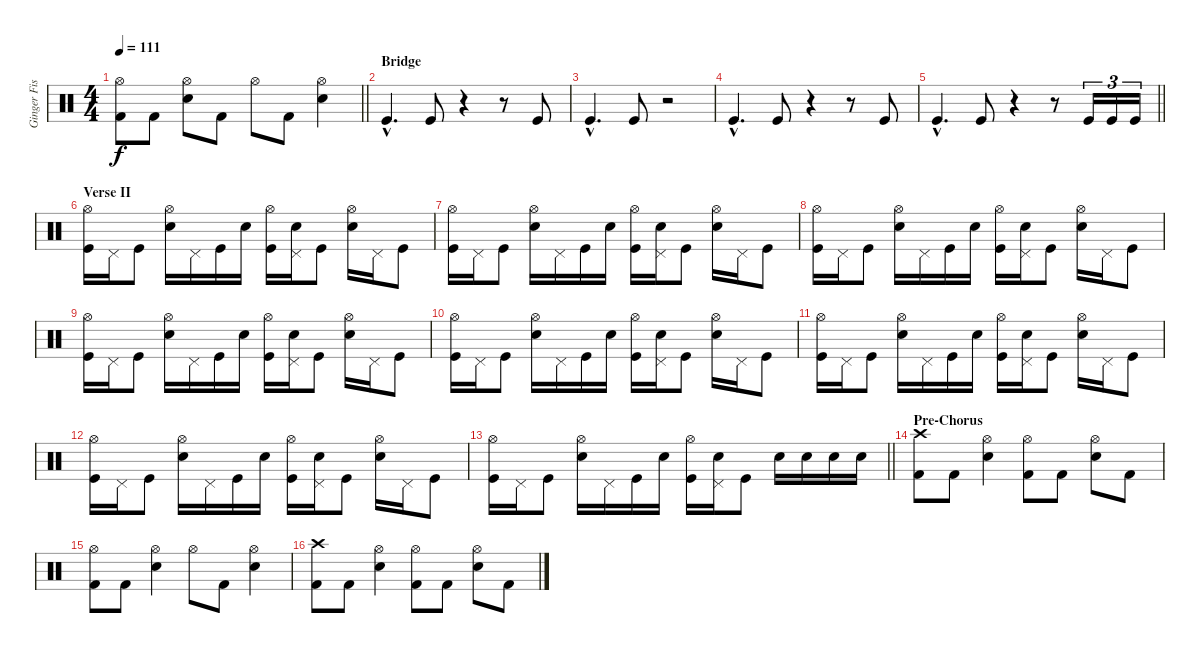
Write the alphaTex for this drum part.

\track ("Ginger Fish" "Ginger Fis") {instrument percussion}
\staff {score}
\articulation defaults
\ts (4 4)
\tempo 111
\clef neutral
\barLineRight lightlight
\ks c
("Hi-Hat (open)" "Kick (hit) 2").8{dy f} "Kick (hit) 2".8 ("Hi-Hat (open)" "Snare (hit) 2").8 "Kick (hit) 2".8 "Hi-Hat (open)".8 "Kick (hit) 2".8 ("Hi-Hat (open)" "Snare (hit) 2").4 |
\section ("" "Bridge")
"Kick (hit)"{hac}.4{d} "Kick (hit)".8 r.4 r.8 "Kick (hit)".8 |
"Kick (hit)"{hac}.4{d} "Kick (hit)".8 r.2 |
"Kick (hit)"{hac}.4{d} "Kick (hit)".8 r.4 r.8 "Kick (hit)".8 |
\barLineRight lightlight "Kick (hit)"{hac}.4{d} "Kick (hit)".8
r.4 r.8 "Kick (hit)".16{tu (3 2)} "Kick (hit)".16{tu (3 2)} "Kick (hit)".16{tu (3 2)} |
\section ("" "Verse II")
("Hi-Hat (open)" "Kick (hit)").16 "Pedal Hi-Hat (hit)".16 "Kick (hit)".8 ("Hi-Hat (open)" "Electric Snare (hit)").16 "Pedal Hi-Hat (hit)".16 "Kick (hit)".16 "Electric Snare (hit)".16 ("Hi-Hat (open)" "Kick (hit)").16 ("Pedal Hi-Hat (hit)" "Electric Snare (hit)").16 "Kick (hit)".8 ("Hi-Hat (open)" "Electric Snare (hit)").16 "Pedal Hi-Hat (hit)".16 "Kick (hit)".8 |
("Hi-Hat (open)" "Kick (hit)").16 "Pedal Hi-Hat (hit)".16 "Kick (hit)".8 ("Hi-Hat (open)" "Electric Snare (hit)").16 "Pedal Hi-Hat (hit)".16 "Kick (hit)".16 "Electric Snare (hit)".16 ("Hi-Hat (open)" "Kick (hit)").16 ("Pedal Hi-Hat (hit)" "Electric Snare (hit)").16 "Kick (hit)".8 ("Hi-Hat (open)" "Electric Snare (hit)").16 "Pedal Hi-Hat (hit)".16 "Kick (hit)".8 |
("Hi-Hat (open)" "Kick (hit)").16 "Pedal Hi-Hat (hit)".16 "Kick (hit)".8 ("Hi-Hat (open)" "Electric Snare (hit)").16 "Pedal Hi-Hat (hit)".16 "Kick (hit)".16 "Electric Snare (hit)".16 ("Hi-Hat (open)" "Kick (hit)").16 ("Pedal Hi-Hat (hit)" "Electric Snare (hit)").16 "Kick (hit)".8 ("Hi-Hat (open)" "Electric Snare (hit)").16 "Pedal Hi-Hat (hit)".16 "Kick (hit)".8 |
("Hi-Hat (open)" "Kick (hit)").16 "Pedal Hi-Hat (hit)".16 "Kick (hit)".8 ("Hi-Hat (open)" "Electric Snare (hit)").16 "Pedal Hi-Hat (hit)".16 "Kick (hit)".16 "Electric Snare (hit)".16 ("Hi-Hat (open)" "Kick (hit)").16 ("Pedal Hi-Hat (hit)" "Electric Snare (hit)").16 "Kick (hit)".8 ("Hi-Hat (open)" "Electric Snare (hit)").16 "Pedal Hi-Hat (hit)".16 "Kick (hit)".8 |
("Hi-Hat (open)" "Kick (hit)").16 "Pedal Hi-Hat (hit)".16 "Kick (hit)".8 ("Hi-Hat (open)" "Electric Snare (hit)").16 "Pedal Hi-Hat (hit)".16 "Kick (hit)".16 "Electric Snare (hit)".16 ("Hi-Hat (open)" "Kick (hit)").16 ("Pedal Hi-Hat (hit)" "Electric Snare (hit)").16 "Kick (hit)".8 ("Hi-Hat (open)" "Electric Snare (hit)").16 "Pedal Hi-Hat (hit)".16 "Kick (hit)".8 |
("Hi-Hat (open)" "Kick (hit)").16 "Pedal Hi-Hat (hit)".16 "Kick (hit)".8 ("Hi-Hat (open)" "Electric Snare (hit)").16 "Pedal Hi-Hat (hit)".16 "Kick (hit)".16 "Electric Snare (hit)".16 ("Hi-Hat (open)" "Kick (hit)").16 ("Pedal Hi-Hat (hit)" "Electric Snare (hit)").16 "Kick (hit)".8 ("Hi-Hat (open)" "Electric Snare (hit)").16 "Pedal Hi-Hat (hit)".16 "Kick (hit)".8 |
("Hi-Hat (open)" "Kick (hit)").16 "Pedal Hi-Hat (hit)".16 "Kick (hit)".8 ("Hi-Hat (open)" "Electric Snare (hit)").16 "Pedal Hi-Hat (hit)".16 "Kick (hit)".16 "Electric Snare (hit)".16 ("Hi-Hat (open)" "Kick (hit)").16 ("Pedal Hi-Hat (hit)" "Electric Snare (hit)").16 "Kick (hit)".8 ("Hi-Hat (open)" "Electric Snare (hit)").16 "Pedal Hi-Hat (hit)".16 "Kick (hit)".8 |
\barLineRight lightlight
("Hi-Hat (open)" "Kick (hit)").16 "Pedal Hi-Hat (hit)".16 "Kick (hit)".8 ("Hi-Hat (open)" "Electric Snare (hit)").16 "Pedal Hi-Hat (hit)".16 "Kick (hit)".16 "Electric Snare (hit)".16 ("Hi-Hat (open)" "Kick (hit)").16 ("Pedal Hi-Hat (hit)" "Electric Snare (hit)").16 "Kick (hit)".8 "Snare (hit) 2".16 "Snare (hit) 2".16 "Snare (hit) 2".16 "Snare (hit) 2".16 |
\section ("" "Pre-Chorus ")
("Crash high (hit)" "Kick (hit) 2").8 "Kick (hit) 2".8 ("Hi-Hat (open)" "Snare (hit) 2").4 ("Hi-Hat (open)" "Kick (hit) 2").8 "Kick (hit) 2".8 ("Hi-Hat (open)" "Snare (hit) 2").8 "Kick (hit) 2".8 |
("Hi-Hat (open)" "Kick (hit) 2").8 "Kick (hit) 2".8 ("Hi-Hat (open)" "Snare (hit) 2").4 "Hi-Hat (open)".8 "Kick (hit) 2".8 ("Hi-Hat (open)" "Snare (hit) 2").4 |
("Crash high (hit)" "Kick (hit) 2").8 "Kick (hit) 2".8 ("Hi-Hat (open)" "Snare (hit) 2").4 ("Hi-Hat (open)" "Kick (hit) 2").8 "Kick (hit) 2".8 ("Hi-Hat (open)" "Snare (hit) 2").8 "Kick (hit) 2".8
